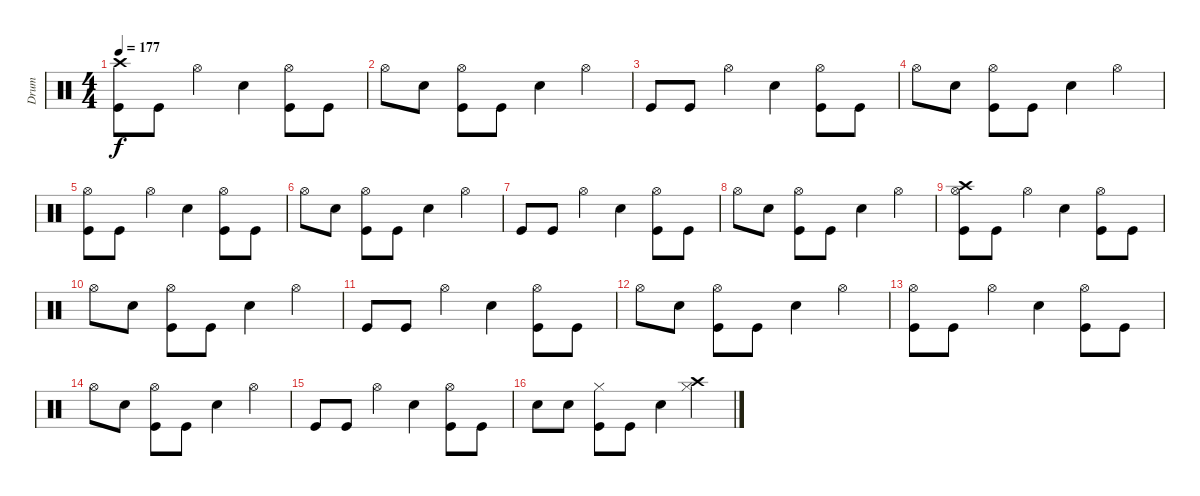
\track ("Drum" "Drum") {instrument percussion}
\staff {score}
\articulation defaults
\ts (4 4)
\tempo 177
\clef neutral
\ks c
("Kick (hit)" "Crash high (hit)").8{dy f} "Kick (hit)".8 "Hi-Hat (open)".4 "Snare (hit) 2".4 ("Kick (hit)" "Hi-Hat (open)").8 "Kick (hit)".8 |
"Hi-Hat (open)".8 "Snare (hit) 2".8 ("Kick (hit)" "Hi-Hat (open)").8 "Kick (hit)".8 "Snare (hit) 2".4 "Hi-Hat (open)".4 |
"Kick (hit)".8 "Kick (hit)".8 "Hi-Hat (open)".4 "Snare (hit) 2".4 ("Kick (hit)" "Hi-Hat (open)").8 "Kick (hit)".8 |
"Hi-Hat (open)".8 "Snare (hit) 2".8 ("Kick (hit)" "Hi-Hat (open)").8 "Kick (hit)".8 "Snare (hit) 2".4 "Hi-Hat (open)".4 |
("Kick (hit)" "Hi-Hat (open)").8 "Kick (hit)".8 "Hi-Hat (open)".4 "Snare (hit) 2".4 ("Kick (hit)" "Hi-Hat (open)").8 "Kick (hit)".8 |
"Hi-Hat (open)".8 "Snare (hit) 2".8 ("Kick (hit)" "Hi-Hat (open)").8 "Kick (hit)".8 "Snare (hit) 2".4 "Hi-Hat (open)".4 |
"Kick (hit)".8 "Kick (hit)".8 "Hi-Hat (open)".4 "Snare (hit) 2".4 ("Kick (hit)" "Hi-Hat (open)").8 "Kick (hit)".8 |
"Hi-Hat (open)".8 "Snare (hit) 2".8 ("Kick (hit)" "Hi-Hat (open)").8 "Kick (hit)".8 "Snare (hit) 2".4 "Hi-Hat (open)".4 |
("Kick (hit)" "Hi-Hat (open)" "Crash high (hit)").8 "Kick (hit)".8 "Hi-Hat (open)".4 "Snare (hit) 2".4 ("Kick (hit)" "Hi-Hat (open)").8 "Kick (hit)".8 |
"Hi-Hat (open)".8 "Snare (hit) 2".8 ("Kick (hit)" "Hi-Hat (open)").8 "Kick (hit)".8 "Snare (hit) 2".4 "Hi-Hat (open)".4 |
"Kick (hit)".8 "Kick (hit)".8 "Hi-Hat (open)".4 "Snare (hit) 2".4 ("Kick (hit)" "Hi-Hat (open)").8 "Kick (hit)".8 |
"Hi-Hat (open)".8 "Snare (hit) 2".8 ("Kick (hit)" "Hi-Hat (open)").8 "Kick (hit)".8 "Snare (hit) 2".4 "Hi-Hat (open)".4 |
("Kick (hit)" "Hi-Hat (open)").8 "Kick (hit)".8 "Hi-Hat (open)".4 "Snare (hit) 2".4 ("Kick (hit)" "Hi-Hat (open)").8 "Kick (hit)".8 |
"Hi-Hat (open)".8 "Snare (hit) 2".8 ("Kick (hit)" "Hi-Hat (open)").8 "Kick (hit)".8 "Snare (hit) 2".4 "Hi-Hat (open)".4 |
"Kick (hit)".8 "Kick (hit)".8 "Hi-Hat (open)".4 "Snare (hit) 2".4 ("Kick (hit)" "Hi-Hat (open)").8 "Kick (hit)".8 |
"Snare (hit) 2".8 "Snare (hit) 2".8 ("Kick (hit)" "Hi-Hat (closed)").8 "Kick (hit)".8 "Snare (hit) 2".4 ("Hi-Hat (closed)" "Crash high (hit)").4
